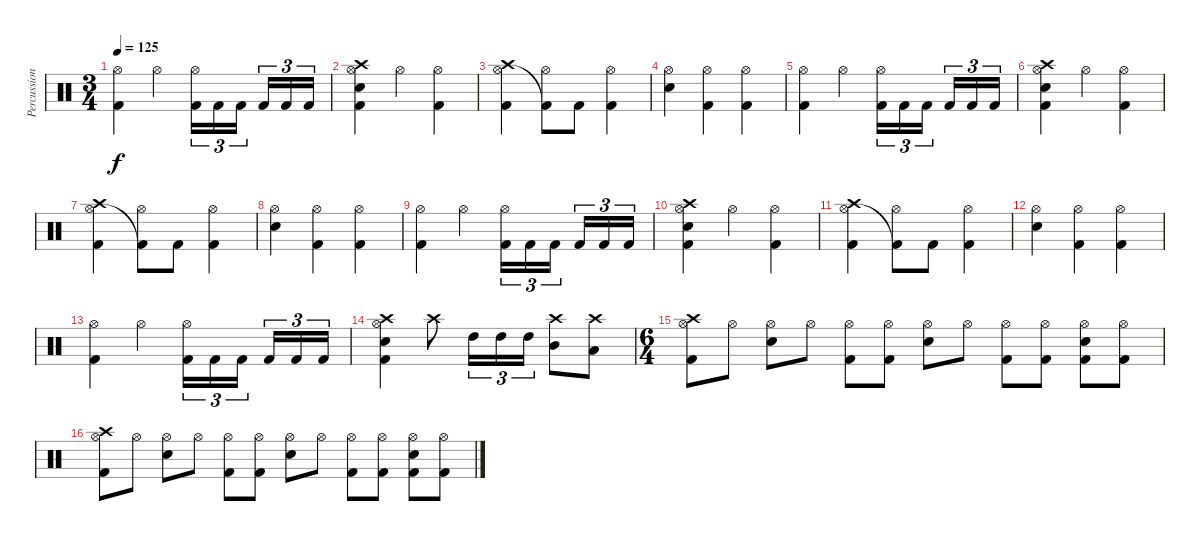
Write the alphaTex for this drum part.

\track ("Percussion" "Percussion") {instrument percussion}
\staff {score}
\articulation defaults
\ts (3 4)
\tempo 125
\clef neutral
\ks c
("Hi-Hat (open)" "Kick (hit) 2").4{dy f} "Hi-Hat (open)".4 ("Hi-Hat (open)" "Kick (hit) 2").16{tu (3 2)} "Kick (hit) 2".16{tu (3 2)} "Kick (hit) 2".16{tu (3 2)} "Kick (hit) 2".16{tu (3 2)} "Kick (hit) 2".16{tu (3 2)} "Kick (hit) 2".16{tu (3 2)} |
("Crash high (hit)" "Hi-Hat (open)" "Snare (hit) 2" "Kick (hit) 2").4 "Hi-Hat (open)".4 ("Hi-Hat (open)" "Kick (hit) 2").4 |
("Crash high (hit)" "Hi-Hat (open)" "Kick (hit) 2").4 ("Hi-Hat (open)" "Kick (hit) 2"{t}).8 "Kick (hit) 2".8 ("Hi-Hat (open)" "Kick (hit) 2").4 |
("Hi-Hat (open)" "Snare (hit) 2").4 ("Hi-Hat (open)" "Kick (hit) 2").4 ("Hi-Hat (open)" "Kick (hit) 2").4 |
("Hi-Hat (open)" "Kick (hit) 2").4 "Hi-Hat (open)".4 ("Hi-Hat (open)" "Kick (hit) 2").16{tu (3 2)} "Kick (hit) 2".16{tu (3 2)} "Kick (hit) 2".16{tu (3 2)} "Kick (hit) 2".16{tu (3 2)} "Kick (hit) 2".16{tu (3 2)} "Kick (hit) 2".16{tu (3 2)} |
("Crash high (hit)" "Hi-Hat (open)" "Snare (hit) 2" "Kick (hit) 2").4 "Hi-Hat (open)".4 ("Hi-Hat (open)" "Kick (hit) 2").4 |
("Crash high (hit)" "Hi-Hat (open)" "Kick (hit) 2").4 ("Hi-Hat (open)" "Kick (hit) 2"{t}).8 "Kick (hit) 2".8 ("Hi-Hat (open)" "Kick (hit) 2").4 |
("Hi-Hat (open)" "Snare (hit) 2").4 ("Hi-Hat (open)" "Kick (hit) 2").4 ("Hi-Hat (open)" "Kick (hit) 2").4 |
("Hi-Hat (open)" "Kick (hit) 2").4 "Hi-Hat (open)".4 ("Hi-Hat (open)" "Kick (hit) 2").16{tu (3 2)} "Kick (hit) 2".16{tu (3 2)} "Kick (hit) 2".16{tu (3 2)} "Kick (hit) 2".16{tu (3 2)} "Kick (hit) 2".16{tu (3 2)} "Kick (hit) 2".16{tu (3 2)} |
("Crash high (hit)" "Hi-Hat (open)" "Snare (hit) 2" "Kick (hit) 2").4 "Hi-Hat (open)".4 ("Hi-Hat (open)" "Kick (hit) 2").4 |
("Crash high (hit)" "Hi-Hat (open)" "Kick (hit) 2").4 ("Hi-Hat (open)" "Kick (hit) 2"{t}).8 "Kick (hit) 2".8 ("Hi-Hat (open)" "Kick (hit) 2").4 |
("Hi-Hat (open)" "Snare (hit) 2").4 ("Hi-Hat (open)" "Kick (hit) 2").4 ("Hi-Hat (open)" "Kick (hit) 2").4 |
("Hi-Hat (open)" "Kick (hit) 2").4 "Hi-Hat (open)".4 ("Hi-Hat (open)" "Kick (hit) 2").16{tu (3 2)} "Kick (hit) 2".16{tu (3 2)} "Kick (hit) 2".16{tu (3 2)} "Kick (hit) 2".16{tu (3 2)} "Kick (hit) 2".16{tu (3 2)} "Kick (hit) 2".16{tu (3 2)} |
("Crash high (hit)" "Hi-Hat (open)" "Snare (hit) 2" "Kick (hit) 2").4 "Crash high (hit)".8 "High Tom (hit)".16{tu (3 2)} "High Tom (hit)".16{tu (3 2)} "High Tom (hit)".16{tu (3 2)} ("Crash high (hit)" "Mid Tom (hit)").8 ("Crash high (hit)" "Low Tom (hit)").8 |
\ts (6 4)
("Crash high (hit)" "Hi-Hat (open)" "Kick (hit) 2").8 "Hi-Hat (open)".8 ("Hi-Hat (open)" "Snare (hit) 2").8 "Hi-Hat (open)".8 ("Hi-Hat (open)" "Kick (hit) 2").8 ("Hi-Hat (open)" "Kick (hit) 2").8 ("Hi-Hat (open)" "Snare (hit) 2").8 "Hi-Hat (open)".8 ("Hi-Hat (open)" "Kick (hit) 2").8 ("Hi-Hat (open)" "Kick (hit) 2").8 ("Hi-Hat (open)" "Snare (hit) 2" "Kick (hit) 2").8 ("Hi-Hat (open)" "Kick (hit) 2").8 |
("Crash high (hit)" "Hi-Hat (open)" "Kick (hit) 2").8 "Hi-Hat (open)".8 ("Hi-Hat (open)" "Snare (hit) 2").8 "Hi-Hat (open)".8 ("Hi-Hat (open)" "Kick (hit) 2").8 ("Hi-Hat (open)" "Kick (hit) 2").8 ("Hi-Hat (open)" "Snare (hit) 2").8 "Hi-Hat (open)".8 ("Hi-Hat (open)" "Kick (hit) 2").8 ("Hi-Hat (open)" "Kick (hit) 2").8 ("Hi-Hat (open)" "Snare (hit) 2" "Kick (hit) 2").8 ("Hi-Hat (open)" "Kick (hit) 2").8
